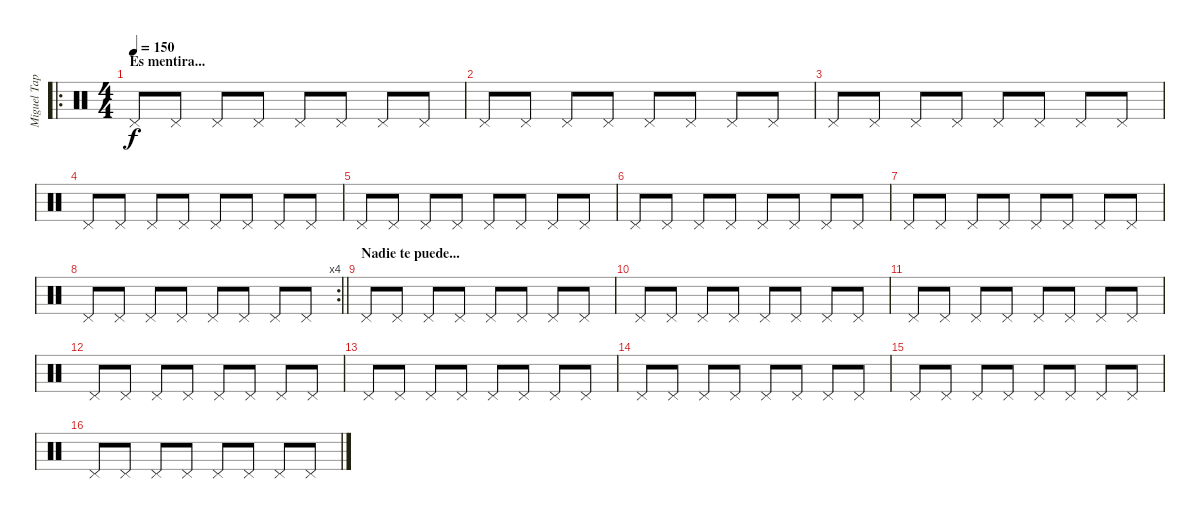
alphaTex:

\track ("Miguel Tapia" "Miguel Tap") {instrument percussion}
\staff {score}
\articulation defaults
\ro
\ts (4 4)
\section ("" "Es mentira...")
\tempo 150
\clef neutral
\ks c "Pedal Hi-Hat (hit)".8{dy f} "Pedal Hi-Hat (hit)".8 "Pedal Hi-Hat (hit)".8 "Pedal Hi-Hat (hit)".8 "Pedal Hi-Hat (hit)".8 "Pedal Hi-Hat (hit)".8 "Pedal Hi-Hat (hit)".8 "Pedal Hi-Hat (hit)".8
|
"Pedal Hi-Hat (hit)".8 "Pedal Hi-Hat (hit)".8 "Pedal Hi-Hat (hit)".8 "Pedal Hi-Hat (hit)".8 "Pedal Hi-Hat (hit)".8 "Pedal Hi-Hat (hit)".8 "Pedal Hi-Hat (hit)".8 "Pedal Hi-Hat (hit)".8 |
"Pedal Hi-Hat (hit)".8 "Pedal Hi-Hat (hit)".8 "Pedal Hi-Hat (hit)".8 "Pedal Hi-Hat (hit)".8 "Pedal Hi-Hat (hit)".8 "Pedal Hi-Hat (hit)".8 "Pedal Hi-Hat (hit)".8 "Pedal Hi-Hat (hit)".8 |
"Pedal Hi-Hat (hit)".8 "Pedal Hi-Hat (hit)".8 "Pedal Hi-Hat (hit)".8 "Pedal Hi-Hat (hit)".8 "Pedal Hi-Hat (hit)".8 "Pedal Hi-Hat (hit)".8 "Pedal Hi-Hat (hit)".8 "Pedal Hi-Hat (hit)".8 |
"Pedal Hi-Hat (hit)".8 "Pedal Hi-Hat (hit)".8 "Pedal Hi-Hat (hit)".8 "Pedal Hi-Hat (hit)".8 "Pedal Hi-Hat (hit)".8 "Pedal Hi-Hat (hit)".8 "Pedal Hi-Hat (hit)".8 "Pedal Hi-Hat (hit)".8 |
"Pedal Hi-Hat (hit)".8 "Pedal Hi-Hat (hit)".8 "Pedal Hi-Hat (hit)".8 "Pedal Hi-Hat (hit)".8 "Pedal Hi-Hat (hit)".8 "Pedal Hi-Hat (hit)".8 "Pedal Hi-Hat (hit)".8 "Pedal Hi-Hat (hit)".8 |
"Pedal Hi-Hat (hit)".8 "Pedal Hi-Hat (hit)".8 "Pedal Hi-Hat (hit)".8 "Pedal Hi-Hat (hit)".8 "Pedal Hi-Hat (hit)".8 "Pedal Hi-Hat (hit)".8 "Pedal Hi-Hat (hit)".8 "Pedal Hi-Hat (hit)".8 |
\rc 4
\barLineRight lightlight "Pedal Hi-Hat (hit)".8 "Pedal Hi-Hat (hit)".8 "Pedal Hi-Hat (hit)".8 "Pedal Hi-Hat (hit)".8 "Pedal Hi-Hat (hit)".8 "Pedal Hi-Hat (hit)".8 "Pedal Hi-Hat (hit)".8 "Pedal Hi-Hat (hit)".8
|
\section ("" "Nadie te puede...")
"Pedal Hi-Hat (hit)".8 "Pedal Hi-Hat (hit)".8 "Pedal Hi-Hat (hit)".8 "Pedal Hi-Hat (hit)".8 "Pedal Hi-Hat (hit)".8 "Pedal Hi-Hat (hit)".8 "Pedal Hi-Hat (hit)".8 "Pedal Hi-Hat (hit)".8 |
"Pedal Hi-Hat (hit)".8 "Pedal Hi-Hat (hit)".8 "Pedal Hi-Hat (hit)".8 "Pedal Hi-Hat (hit)".8 "Pedal Hi-Hat (hit)".8 "Pedal Hi-Hat (hit)".8 "Pedal Hi-Hat (hit)".8 "Pedal Hi-Hat (hit)".8 |
"Pedal Hi-Hat (hit)".8 "Pedal Hi-Hat (hit)".8 "Pedal Hi-Hat (hit)".8 "Pedal Hi-Hat (hit)".8 "Pedal Hi-Hat (hit)".8 "Pedal Hi-Hat (hit)".8 "Pedal Hi-Hat (hit)".8 "Pedal Hi-Hat (hit)".8 |
"Pedal Hi-Hat (hit)".8 "Pedal Hi-Hat (hit)".8 "Pedal Hi-Hat (hit)".8 "Pedal Hi-Hat (hit)".8 "Pedal Hi-Hat (hit)".8 "Pedal Hi-Hat (hit)".8 "Pedal Hi-Hat (hit)".8 "Pedal Hi-Hat (hit)".8 |
"Pedal Hi-Hat (hit)".8 "Pedal Hi-Hat (hit)".8 "Pedal Hi-Hat (hit)".8 "Pedal Hi-Hat (hit)".8 "Pedal Hi-Hat (hit)".8 "Pedal Hi-Hat (hit)".8 "Pedal Hi-Hat (hit)".8 "Pedal Hi-Hat (hit)".8 |
"Pedal Hi-Hat (hit)".8 "Pedal Hi-Hat (hit)".8 "Pedal Hi-Hat (hit)".8 "Pedal Hi-Hat (hit)".8 "Pedal Hi-Hat (hit)".8 "Pedal Hi-Hat (hit)".8 "Pedal Hi-Hat (hit)".8 "Pedal Hi-Hat (hit)".8 |
"Pedal Hi-Hat (hit)".8 "Pedal Hi-Hat (hit)".8 "Pedal Hi-Hat (hit)".8 "Pedal Hi-Hat (hit)".8 "Pedal Hi-Hat (hit)".8 "Pedal Hi-Hat (hit)".8 "Pedal Hi-Hat (hit)".8 "Pedal Hi-Hat (hit)".8 |
"Pedal Hi-Hat (hit)".8 "Pedal Hi-Hat (hit)".8 "Pedal Hi-Hat (hit)".8 "Pedal Hi-Hat (hit)".8 "Pedal Hi-Hat (hit)".8 "Pedal Hi-Hat (hit)".8 "Pedal Hi-Hat (hit)".8 "Pedal Hi-Hat (hit)".8
